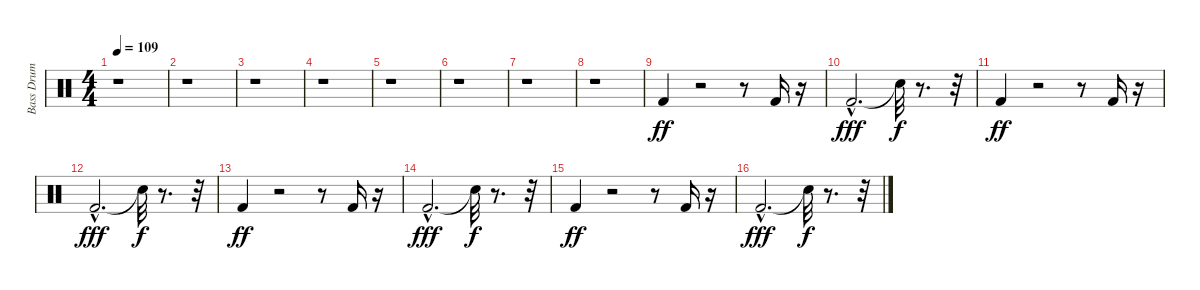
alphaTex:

\track ("Bass Drum" "Bass Drum") {instrument percussion}
\staff {score}
\articulation defaults
\ts (4 4)
\tempo 109
\clef neutral
\ks c
r.1{dy ff} |
r.1 |
r.1 |
r.1 |
r.1 |
r.1 |
r.1 |
r.1 |
"Kick (hit) 2".4 r.2 r.8 "Kick (hit) 2".16 r.16 |
"Kick (hit) 2"{hac}.2{d dy fff} "Snare (hit)"{t}.32{dy f} r.8{d} r.32 |
"Kick (hit) 2".4{dy ff} r.2 r.8 "Kick (hit) 2".16 r.16 |
"Kick (hit) 2"{hac}.2{d dy fff} "Snare (hit)"{t}.32{dy f} r.8{d} r.32 |
"Kick (hit) 2".4{dy ff} r.2 r.8 "Kick (hit) 2".16 r.16 |
"Kick (hit) 2"{hac}.2{d dy fff} "Snare (hit)"{t}.32{dy f} r.8{d} r.32 |
"Kick (hit) 2".4{dy ff} r.2 r.8 "Kick (hit) 2".16 r.16 |
"Kick (hit) 2"{hac}.2{d dy fff} "Snare (hit)"{t}.32{dy f} r.8{d} r.32
